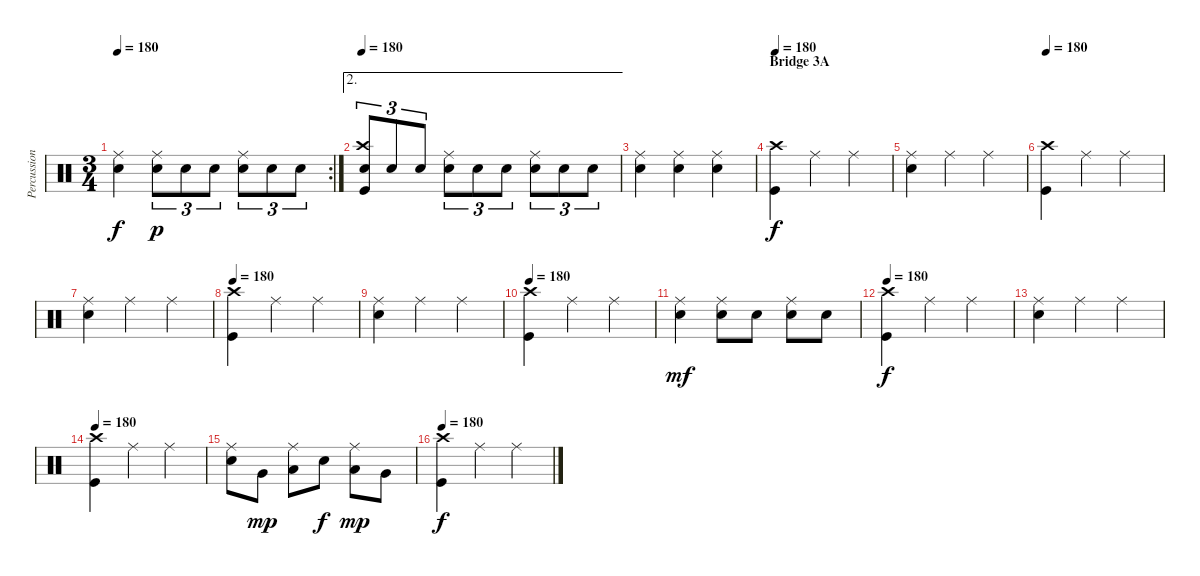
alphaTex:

\track ("Percussion" "Percussion") {instrument percussion}
\staff {score}
\articulation defaults
\rc 2
\ts (3 4)
\tempo 180
\clef neutral
\ks c
("Ride (middle)" "Electric Snare (hit)").4{dy f} ("Ride (middle)" "Snare (hit) 2").8{tu (3 2) dy p} "Snare (hit) 2".8{tu (3 2)} "Snare (hit) 2".8{tu (3 2)} ("Ride (middle)" "Snare (hit) 2").8{tu (3 2)} "Snare (hit) 2".8{tu (3 2)} "Snare (hit) 2".8{tu (3 2)} |
\ae 2
\tempo 180
("Crash high (hit)" "Snare (hit) 2" "Kick (hit)").8{tu (3 2)} "Snare (hit) 2".8{tu (3 2)} "Snare (hit) 2".8{tu (3 2)} ("Ride (middle)" "Snare (hit) 2").8{tu (3 2)} "Snare (hit) 2".8{tu (3 2)} "Snare (hit) 2".8{tu (3 2)} ("Ride (middle)" "Snare (hit) 2").8{tu (3 2)} "Snare (hit) 2".8{tu (3 2)} "Snare (hit) 2".8{tu (3 2)} |
("Ride (middle)" "Snare (hit) 2").4 ("Ride (middle)" "Snare (hit) 2").4 ("Ride (middle)" "Snare (hit) 2").4 |
\section ("" "Bridge 3A")
\tempo 180
("Crash high (hit)" "Kick (hit)").4{dy f} "Ride (middle)".4 "Ride (middle)".4 |
("Ride (middle)" "Electric Snare (hit)").4 "Ride (middle)".4 "Ride (middle)".4 |
\tempo 180
("Crash high (hit)" "Kick (hit)").4 "Ride (middle)".4 "Ride (middle)".4 |
("Ride (middle)" "Electric Snare (hit)").4 "Ride (middle)".4 "Ride (middle)".4 |
\tempo 180
("Crash high (hit)" "Kick (hit)").4 "Ride (middle)".4 "Ride (middle)".4 |
("Ride (middle)" "Electric Snare (hit)").4 "Ride (middle)".4 "Ride (middle)".4 |
\tempo 180
("Crash high (hit)" "Kick (hit)").4 "Ride (middle)".4 "Ride (middle)".4 |
("Ride (middle)" "Electric Snare (hit)").4{dy mf} ("Ride (middle)" "Electric Snare (hit)").8 "Electric Snare (hit)".8 ("Ride (middle)" "Electric Snare (hit)").8 "Electric Snare (hit)".8 |
\tempo 180
("Crash high (hit)" "Kick (hit)").4{dy f} "Ride (middle)".4 "Ride (middle)".4 |
("Ride (middle)" "Electric Snare (hit)").4 "Ride (middle)".4 "Ride (middle)".4 |
\tempo 180
("Crash high (hit)" "Kick (hit)").4 "Ride (middle)".4 "Ride (middle)".4 |
("Ride (middle)" "Electric Snare (hit)").8 "Very Low Tom (hit)".8{dy mp} ("Ride (middle)" "Low Floor Tom (hit)").8 "Electric Snare (hit)".8{dy f} ("Ride (middle)" "Low Tom (hit)").8{dy mp} "Very Low Tom (hit)".8 |
\tempo 180
("Crash high (hit)" "Kick (hit)").4{dy f} "Ride (middle)".4 "Ride (middle)".4
